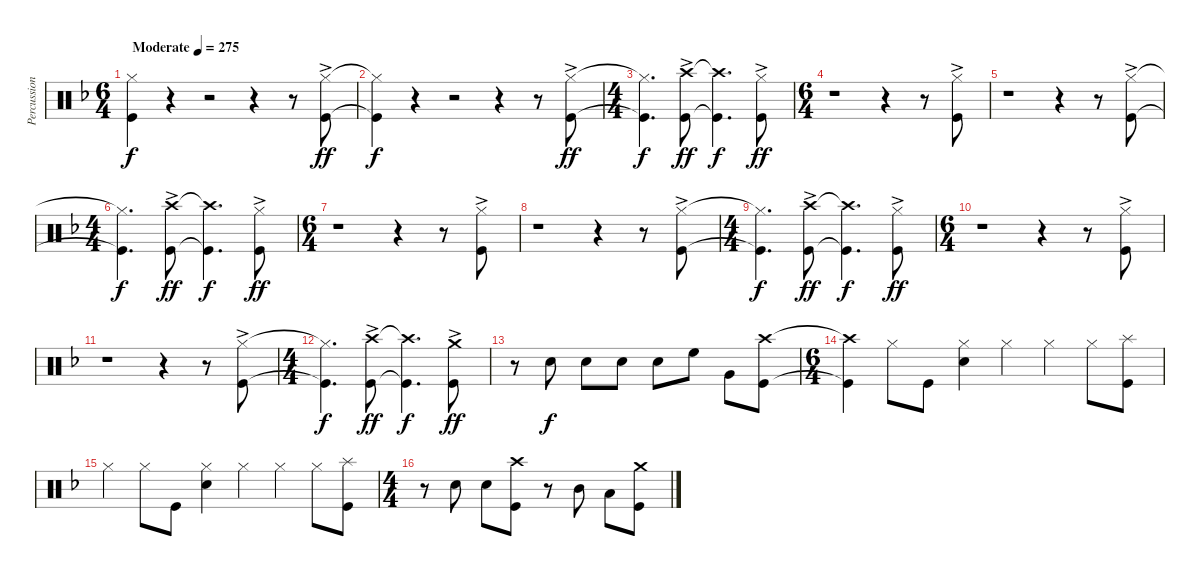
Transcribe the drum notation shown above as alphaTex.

\track ("Percussion" "Percussion") {instrument percussion}
\staff {score}
\articulation defaults
\ts (6 4)
\tempo (275 "Moderate")
\clef neutral
\ks dminor
("Hi-Hat (closed)" "Kick (hit)").4{dy f} r.4 r.2 r.4 r.8 ("Hi-Hat (closed)" "Kick (hit)"{ac}).8{dy ff} |
("Hi-Hat (closed)"{t} "Kick (hit)"{t}).4{dy f} r.4 r.2 r.4 r.8 ("Hi-Hat (closed)"{ac} "Kick (hit)"{ac}).8{dy ff} |
\ts (4 4)
("Hi-Hat (closed)"{t} "Kick (hit)"{t}).4{d dy f} ("Crash high (hit)"{ac} "Kick (hit)"{ac}).8{dy ff} ("Crash high (hit)"{t} "Kick (hit)"{t}).4{d dy f} ("Hi-Hat (closed)"{ac} "Kick (hit)"{ac}).8{dy ff} |
\ts (6 4)
r.1 r.4 r.8 ("Hi-Hat (closed)" "Kick (hit)"{ac}).8 |
r.1 r.4 r.8 ("Hi-Hat (closed)" "Kick (hit)"{ac}).8 |
\ts (4 4)
("Hi-Hat (closed)"{t} "Kick (hit)"{t}).4{d dy f} ("Crash high (hit)"{ac} "Kick (hit)"{ac}).8{dy ff} ("Crash high (hit)"{t} "Kick (hit)"{t}).4{d dy f} ("Hi-Hat (closed)"{ac} "Kick (hit)"{ac}).8{dy ff} |
\ts (6 4)
r.1 r.4 r.8 ("Hi-Hat (closed)" "Kick (hit)"{ac}).8 |
r.1 r.4 r.8 ("Hi-Hat (closed)" "Kick (hit)"{ac}).8 |
\ts (4 4)
("Hi-Hat (closed)"{t} "Kick (hit)"{t}).4{d dy f} ("Crash high (hit)"{ac} "Kick (hit)"{ac}).8{dy ff} ("Crash high (hit)"{t} "Kick (hit)"{t}).4{d dy f} ("Hi-Hat (closed)"{ac} "Kick (hit)"{ac}).8{dy ff} |
\ts (6 4)
r.1 r.4 r.8 ("Hi-Hat (closed)" "Kick (hit)"{ac}).8 |
r.1 r.4 r.8 ("Hi-Hat (closed)" "Kick (hit)"{ac}).8 |
\ts (4 4)
("Hi-Hat (closed)"{t} "Kick (hit)"{t}).4{d dy f} ("Crash high (hit)"{ac} "Kick (hit)"{ac}).8{dy ff} ("Crash high (hit)"{t} "Kick (hit)"{t}).4{d dy f} ("Crash medium (hit)"{ac} "Kick (hit)"{ac}).8{dy ff} |
r.8 "Snare (hit) 2".8{dy f} "Snare (hit) 2".8 "Snare (hit) 2".8 "Snare (hit) 2".8 "High Floor Tom (hit)".8 "Very Low Tom (hit)".8 ("Crash high (hit)" "Kick (hit)").8 |
\ts (6 4)
("Crash high (hit)"{t} "Kick (hit)"{t}).4 "Hi-Hat (closed)".8 "Kick (hit)".8 ("Hi-Hat (closed)" "Snare (hit) 2").4 "Hi-Hat (closed)".4 "Hi-Hat (closed)".4 "Hi-Hat (closed)".8 ("Splash (hit)" "Kick (hit)").8 |
"Hi-Hat (closed)".4 "Hi-Hat (closed)".8 "Kick (hit)".8 ("Hi-Hat (closed)" "Snare (hit) 2").4 "Hi-Hat (closed)".4 "Hi-Hat (closed)".4 "Hi-Hat (closed)".8 ("Splash (hit)" "Kick (hit)").8 |
\ts (4 4)
r.8 "Snare (hit) 2".8 "Snare (hit) 2".8 ("Crash high (hit)" "Kick (hit)").8 r.8 "Mid Tom (hit)".8 "Low Tom (hit)".8 ("Crash medium (hit)" "Kick (hit)").8
